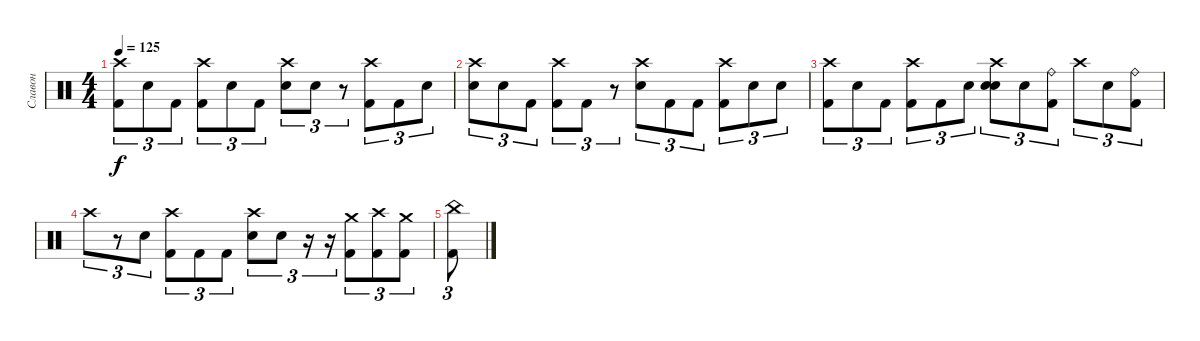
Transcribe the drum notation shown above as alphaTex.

\track ("Славон" "Славон") {instrument percussion}
\staff {score}
\articulation defaults
\ts (4 4)
\tempo 125
\clef neutral
\ks c
("Crash high (hit)" "Kick (hit) 2").8{tu (3 2) dy f} "Snare (hit)".8{tu (3 2)} "Kick (hit) 2".8{tu (3 2)} ("Crash high (hit)" "Kick (hit) 2").8{tu (3 2)} "Snare (hit)".8{tu (3 2)} "Kick (hit) 2".8{tu (3 2)} ("Crash high (hit)" "Electric Snare (hit)").8{tu (3 2)} "Snare (hit)".8{tu (3 2)} r.8{tu (3 2)} ("Crash high (hit)" "Kick (hit) 2").8{tu (3 2)} "Kick (hit) 2".8{tu (3 2)} "Snare (hit)".8{tu (3 2)} |
("Crash high (hit)" "Snare (hit)").8{tu (3 2)} "Snare (hit)".8{tu (3 2)} "Kick (hit) 2".8{tu (3 2)} ("Crash high (hit)" "Kick (hit) 2").8{tu (3 2)} "Kick (hit) 2".8{tu (3 2)} r.8{tu (3 2)} ("Crash high (hit)" "Electric Snare (hit)").8{tu (3 2)} "Kick (hit) 2".8{tu (3 2)} "Kick (hit) 2".8{tu (3 2)} ("Crash high (hit)" "Kick (hit) 2").8{tu (3 2)} "Snare (hit)".8{tu (3 2)} "Snare (hit)".8{tu (3 2)} |
("Crash high (hit)" "Kick (hit) 2").8{tu (3 2)} "Snare (hit)".8{tu (3 2)} "Kick (hit) 2".8{tu (3 2)} ("Crash high (hit)" "Kick (hit) 2").8{tu (3 2)} "Kick (hit) 2".8{tu (3 2)} "Snare (hit)".8{tu (3 2)} ("Crash high (hit)" "Electric Snare (hit)" "Snare (hit)").8{tu (3 2)} "Snare (hit)".8{tu (3 2)} ("Ride (bell)" "Kick (hit) 2").8{tu (3 2)} "Crash high (hit)".8{tu (3 2)} "Snare (hit)".8{tu (3 2)} ("Ride (bell)" "Kick (hit) 2").8{tu (3 2)} |
"Crash high (hit)".8{tu (3 2)} r.8{tu (3 2)} "Snare (hit)".8{tu (3 2)} ("Crash high (hit)" "Kick (hit) 2").8{tu (3 2)} "Kick (hit) 2".8{tu (3 2)} "Kick (hit) 2".8{tu (3 2)} ("Crash high (hit)" "Electric Snare (hit)").8{tu (3 2)} "Snare (hit)".8{tu (3 2)} r.16{tu (3 2)} r.16{tu (3 2)} ("Crash medium (hit)" "Kick (hit) 2").8{tu (3 2)} ("Crash high (hit)" "Kick (hit) 2").8{tu (3 2)} ("Crash medium (hit)" "Kick (hit) 2").8{tu (3 2)} |
("China (hit)" "Kick (hit) 2").8{tu (3 2)}
